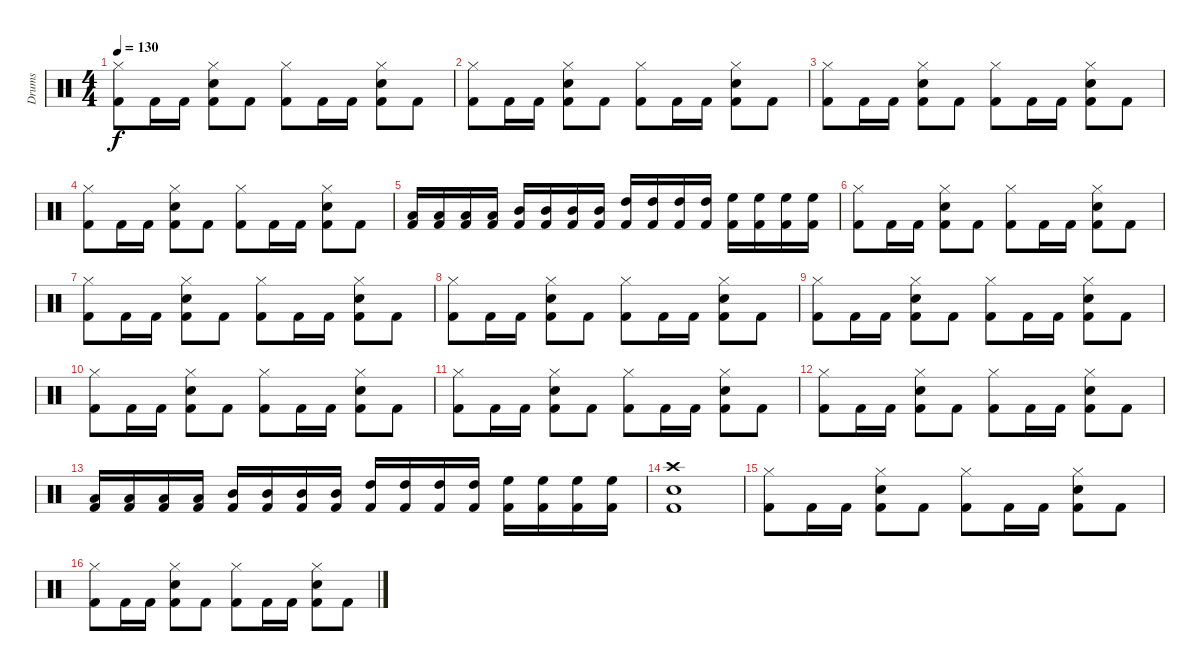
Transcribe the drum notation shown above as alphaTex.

\track ("Drums" "Drums") {instrument percussion}
\staff {score}
\articulation defaults
\ts (4 4)
\tempo 130
\clef neutral
\ks c
("Hi-Hat (closed)" "Kick (hit) 2").8{dy f} "Kick (hit) 2".16 "Kick (hit) 2".16 ("Electric Snare (hit)" "Hi-Hat (closed)" "Kick (hit) 2").8 "Kick (hit) 2".8 ("Hi-Hat (closed)" "Kick (hit) 2").8 "Kick (hit) 2".16 "Kick (hit) 2".16 ("Electric Snare (hit)" "Hi-Hat (closed)" "Kick (hit) 2").8 "Kick (hit) 2".8 |
("Hi-Hat (closed)" "Kick (hit) 2").8 "Kick (hit) 2".16 "Kick (hit) 2".16 ("Electric Snare (hit)" "Hi-Hat (closed)" "Kick (hit) 2").8 "Kick (hit) 2".8 ("Hi-Hat (closed)" "Kick (hit) 2").8 "Kick (hit) 2".16 "Kick (hit) 2".16 ("Electric Snare (hit)" "Hi-Hat (closed)" "Kick (hit) 2").8 "Kick (hit) 2".8 |
("Hi-Hat (closed)" "Kick (hit) 2").8 "Kick (hit) 2".16 "Kick (hit) 2".16 ("Electric Snare (hit)" "Hi-Hat (closed)" "Kick (hit) 2").8 "Kick (hit) 2".8 ("Hi-Hat (closed)" "Kick (hit) 2").8 "Kick (hit) 2".16 "Kick (hit) 2".16 ("Electric Snare (hit)" "Hi-Hat (closed)" "Kick (hit) 2").8 "Kick (hit) 2".8 |
("Hi-Hat (closed)" "Kick (hit) 2").8 "Kick (hit) 2".16 "Kick (hit) 2".16 ("Electric Snare (hit)" "Hi-Hat (closed)" "Kick (hit) 2").8 "Kick (hit) 2".8 ("Hi-Hat (closed)" "Kick (hit) 2").8 "Kick (hit) 2".16 "Kick (hit) 2".16 ("Electric Snare (hit)" "Hi-Hat (closed)" "Kick (hit) 2").8 "Kick (hit) 2".8 |
("Low Tom (hit)" "Kick (hit) 2").16 ("Low Tom (hit)" "Kick (hit) 2").16 ("Low Tom (hit)" "Kick (hit) 2").16 ("Low Tom (hit)" "Kick (hit) 2").16 ("Mid Tom (hit)" "Kick (hit) 2").16 ("Mid Tom (hit)" "Kick (hit) 2").16 ("Mid Tom (hit)" "Kick (hit) 2").16 ("Mid Tom (hit)" "Kick (hit) 2").16 ("High Tom (hit)" "Kick (hit) 2").16 ("High Tom (hit)" "Kick (hit) 2").16 ("High Tom (hit)" "Kick (hit) 2").16 ("High Tom (hit)" "Kick (hit) 2").16 ("High Floor Tom (hit)" "Kick (hit) 2").16 ("High Floor Tom (hit)" "Kick (hit) 2").16 ("High Floor Tom (hit)" "Kick (hit) 2").16 ("High Floor Tom (hit)" "Kick (hit) 2").16 |
("Hi-Hat (closed)" "Kick (hit) 2").8 "Kick (hit) 2".16 "Kick (hit) 2".16 ("Electric Snare (hit)" "Hi-Hat (closed)" "Kick (hit) 2").8 "Kick (hit) 2".8 ("Hi-Hat (closed)" "Kick (hit) 2").8 "Kick (hit) 2".16 "Kick (hit) 2".16 ("Electric Snare (hit)" "Hi-Hat (closed)" "Kick (hit) 2").8 "Kick (hit) 2".8 |
("Hi-Hat (closed)" "Kick (hit) 2").8 "Kick (hit) 2".16 "Kick (hit) 2".16 ("Electric Snare (hit)" "Hi-Hat (closed)" "Kick (hit) 2").8 "Kick (hit) 2".8 ("Hi-Hat (closed)" "Kick (hit) 2").8 "Kick (hit) 2".16 "Kick (hit) 2".16 ("Electric Snare (hit)" "Hi-Hat (closed)" "Kick (hit) 2").8 "Kick (hit) 2".8 |
("Hi-Hat (closed)" "Kick (hit) 2").8 "Kick (hit) 2".16 "Kick (hit) 2".16 ("Electric Snare (hit)" "Hi-Hat (closed)" "Kick (hit) 2").8 "Kick (hit) 2".8 ("Hi-Hat (closed)" "Kick (hit) 2").8 "Kick (hit) 2".16 "Kick (hit) 2".16 ("Electric Snare (hit)" "Hi-Hat (closed)" "Kick (hit) 2").8 "Kick (hit) 2".8 |
("Hi-Hat (closed)" "Kick (hit) 2").8 "Kick (hit) 2".16 "Kick (hit) 2".16 ("Electric Snare (hit)" "Hi-Hat (closed)" "Kick (hit) 2").8 "Kick (hit) 2".8 ("Hi-Hat (closed)" "Kick (hit) 2").8 "Kick (hit) 2".16 "Kick (hit) 2".16 ("Electric Snare (hit)" "Hi-Hat (closed)" "Kick (hit) 2").8 "Kick (hit) 2".8 |
("Hi-Hat (closed)" "Kick (hit) 2").8 "Kick (hit) 2".16 "Kick (hit) 2".16 ("Electric Snare (hit)" "Hi-Hat (closed)" "Kick (hit) 2").8 "Kick (hit) 2".8 ("Hi-Hat (closed)" "Kick (hit) 2").8 "Kick (hit) 2".16 "Kick (hit) 2".16 ("Electric Snare (hit)" "Hi-Hat (closed)" "Kick (hit) 2").8 "Kick (hit) 2".8 |
("Hi-Hat (closed)" "Kick (hit) 2").8 "Kick (hit) 2".16 "Kick (hit) 2".16 ("Electric Snare (hit)" "Hi-Hat (closed)" "Kick (hit) 2").8 "Kick (hit) 2".8 ("Hi-Hat (closed)" "Kick (hit) 2").8 "Kick (hit) 2".16 "Kick (hit) 2".16 ("Electric Snare (hit)" "Hi-Hat (closed)" "Kick (hit) 2").8 "Kick (hit) 2".8 |
("Hi-Hat (closed)" "Kick (hit) 2").8 "Kick (hit) 2".16 "Kick (hit) 2".16 ("Electric Snare (hit)" "Hi-Hat (closed)" "Kick (hit) 2").8 "Kick (hit) 2".8 ("Hi-Hat (closed)" "Kick (hit) 2").8 "Kick (hit) 2".16 "Kick (hit) 2".16 ("Electric Snare (hit)" "Hi-Hat (closed)" "Kick (hit) 2").8 "Kick (hit) 2".8 |
("Low Tom (hit)" "Kick (hit) 2").16 ("Low Tom (hit)" "Kick (hit) 2").16 ("Low Tom (hit)" "Kick (hit) 2").16 ("Low Tom (hit)" "Kick (hit) 2").16 ("Mid Tom (hit)" "Kick (hit) 2").16 ("Mid Tom (hit)" "Kick (hit) 2").16 ("Mid Tom (hit)" "Kick (hit) 2").16 ("Mid Tom (hit)" "Kick (hit) 2").16 ("High Tom (hit)" "Kick (hit) 2").16 ("High Tom (hit)" "Kick (hit) 2").16 ("High Tom (hit)" "Kick (hit) 2").16 ("High Tom (hit)" "Kick (hit) 2").16 ("High Floor Tom (hit)" "Kick (hit) 2").16 ("High Floor Tom (hit)" "Kick (hit) 2").16 ("High Floor Tom (hit)" "Kick (hit) 2").16 ("High Floor Tom (hit)" "Kick (hit) 2").16 |
("Crash high (hit)" "Electric Snare (hit)" "Kick (hit) 2").1 |
("Hi-Hat (closed)" "Kick (hit) 2").8 "Kick (hit) 2".16 "Kick (hit) 2".16 ("Electric Snare (hit)" "Hi-Hat (closed)" "Kick (hit) 2").8 "Kick (hit) 2".8 ("Hi-Hat (closed)" "Kick (hit) 2").8 "Kick (hit) 2".16 "Kick (hit) 2".16 ("Electric Snare (hit)" "Hi-Hat (closed)" "Kick (hit) 2").8 "Kick (hit) 2".8 |
("Hi-Hat (closed)" "Kick (hit) 2").8 "Kick (hit) 2".16 "Kick (hit) 2".16 ("Electric Snare (hit)" "Hi-Hat (closed)" "Kick (hit) 2").8 "Kick (hit) 2".8 ("Hi-Hat (closed)" "Kick (hit) 2").8 "Kick (hit) 2".16 "Kick (hit) 2".16 ("Electric Snare (hit)" "Hi-Hat (closed)" "Kick (hit) 2").8 "Kick (hit) 2".8
